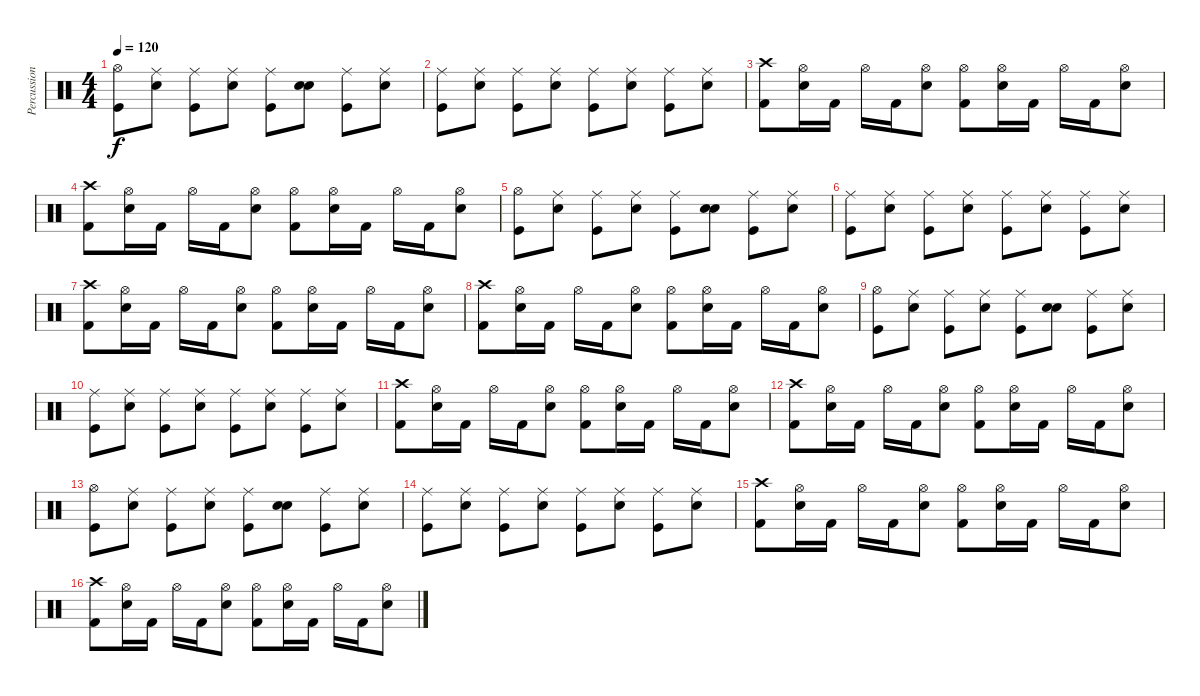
\track ("Percussion" "Percussion") {instrument percussion}
\staff {score}
\articulation defaults
\ts (4 4)
\tempo 120
\clef neutral
\ks c
("Hi-Hat (open)" "Kick (hit)").8{dy f} ("Ride (middle)" "Hand Clap (hit)").8 ("Ride (middle)" "Kick (hit)").8 ("Ride (middle)" "Hand Clap (hit)").8 ("Ride (middle)" "Kick (hit)").8 ("Snare (hit)" "Hand Clap (hit)").8 ("Ride (middle)" "Kick (hit)").8 ("Ride (middle)" "Hand Clap (hit)").8 |
("Ride (middle)" "Kick (hit)").8 ("Ride (middle)" "Hand Clap (hit)").8 ("Ride (middle)" "Kick (hit)").8 ("Ride (middle)" "Hand Clap (hit)").8 ("Ride (middle)" "Kick (hit)").8 ("Ride (middle)" "Hand Clap (hit)").8 ("Ride (middle)" "Kick (hit)").8 ("Ride (middle)" "Hand Clap (hit)").8 |
("Crash high (hit)" "Kick (hit) 2").8 ("Hi-Hat (open)" "Snare (hit) 2").16 "Kick (hit) 2".16 "Hi-Hat (open)".16 "Kick (hit) 2".16 ("Hi-Hat (open)" "Snare (hit) 2").8 ("Hi-Hat (open)" "Kick (hit) 2").8 ("Hi-Hat (open)" "Snare (hit) 2").16 "Kick (hit) 2".16 "Hi-Hat (open)".16 "Kick (hit) 2".16 ("Hi-Hat (open)" "Snare (hit) 2").8 |
("Crash high (hit)" "Kick (hit) 2").8 ("Hi-Hat (open)" "Snare (hit) 2").16 "Kick (hit) 2".16 "Hi-Hat (open)".16 "Kick (hit) 2".16 ("Hi-Hat (open)" "Snare (hit) 2").8 ("Hi-Hat (open)" "Kick (hit) 2").8 ("Hi-Hat (open)" "Snare (hit) 2").16 "Kick (hit) 2".16 "Hi-Hat (open)".16 "Kick (hit) 2".16 ("Hi-Hat (open)" "Snare (hit) 2").8 |
("Hi-Hat (open)" "Kick (hit)").8 ("Ride (middle)" "Hand Clap (hit)").8 ("Ride (middle)" "Kick (hit)").8 ("Ride (middle)" "Hand Clap (hit)").8 ("Ride (middle)" "Kick (hit)").8 ("Snare (hit)" "Hand Clap (hit)").8 ("Ride (middle)" "Kick (hit)").8 ("Ride (middle)" "Hand Clap (hit)").8 |
("Ride (middle)" "Kick (hit)").8 ("Ride (middle)" "Hand Clap (hit)").8 ("Ride (middle)" "Kick (hit)").8 ("Ride (middle)" "Hand Clap (hit)").8 ("Ride (middle)" "Kick (hit)").8 ("Ride (middle)" "Hand Clap (hit)").8 ("Ride (middle)" "Kick (hit)").8 ("Ride (middle)" "Hand Clap (hit)").8 |
("Crash high (hit)" "Kick (hit) 2").8 ("Hi-Hat (open)" "Snare (hit) 2").16 "Kick (hit) 2".16 "Hi-Hat (open)".16 "Kick (hit) 2".16 ("Hi-Hat (open)" "Snare (hit) 2").8 ("Hi-Hat (open)" "Kick (hit) 2").8 ("Hi-Hat (open)" "Snare (hit) 2").16 "Kick (hit) 2".16 "Hi-Hat (open)".16 "Kick (hit) 2".16 ("Hi-Hat (open)" "Snare (hit) 2").8 |
("Crash high (hit)" "Kick (hit) 2").8 ("Hi-Hat (open)" "Snare (hit) 2").16 "Kick (hit) 2".16 "Hi-Hat (open)".16 "Kick (hit) 2".16 ("Hi-Hat (open)" "Snare (hit) 2").8 ("Hi-Hat (open)" "Kick (hit) 2").8 ("Hi-Hat (open)" "Snare (hit) 2").16 "Kick (hit) 2".16 "Hi-Hat (open)".16 "Kick (hit) 2".16 ("Hi-Hat (open)" "Snare (hit) 2").8 |
("Hi-Hat (open)" "Kick (hit)").8 ("Ride (middle)" "Hand Clap (hit)").8 ("Ride (middle)" "Kick (hit)").8 ("Ride (middle)" "Hand Clap (hit)").8 ("Ride (middle)" "Kick (hit)").8 ("Snare (hit)" "Hand Clap (hit)").8 ("Ride (middle)" "Kick (hit)").8 ("Ride (middle)" "Hand Clap (hit)").8 |
("Ride (middle)" "Kick (hit)").8 ("Ride (middle)" "Hand Clap (hit)").8 ("Ride (middle)" "Kick (hit)").8 ("Ride (middle)" "Hand Clap (hit)").8 ("Ride (middle)" "Kick (hit)").8 ("Ride (middle)" "Hand Clap (hit)").8 ("Ride (middle)" "Kick (hit)").8 ("Ride (middle)" "Hand Clap (hit)").8 |
("Crash high (hit)" "Kick (hit) 2").8 ("Hi-Hat (open)" "Snare (hit) 2").16 "Kick (hit) 2".16 "Hi-Hat (open)".16 "Kick (hit) 2".16 ("Hi-Hat (open)" "Snare (hit) 2").8 ("Hi-Hat (open)" "Kick (hit) 2").8 ("Hi-Hat (open)" "Snare (hit) 2").16 "Kick (hit) 2".16 "Hi-Hat (open)".16 "Kick (hit) 2".16 ("Hi-Hat (open)" "Snare (hit) 2").8 |
("Crash high (hit)" "Kick (hit) 2").8 ("Hi-Hat (open)" "Snare (hit) 2").16 "Kick (hit) 2".16 "Hi-Hat (open)".16 "Kick (hit) 2".16 ("Hi-Hat (open)" "Snare (hit) 2").8 ("Hi-Hat (open)" "Kick (hit) 2").8 ("Hi-Hat (open)" "Snare (hit) 2").16 "Kick (hit) 2".16 "Hi-Hat (open)".16 "Kick (hit) 2".16 ("Hi-Hat (open)" "Snare (hit) 2").8 |
("Hi-Hat (open)" "Kick (hit)").8 ("Ride (middle)" "Hand Clap (hit)").8 ("Ride (middle)" "Kick (hit)").8 ("Ride (middle)" "Hand Clap (hit)").8 ("Ride (middle)" "Kick (hit)").8 ("Snare (hit)" "Hand Clap (hit)").8 ("Ride (middle)" "Kick (hit)").8 ("Ride (middle)" "Hand Clap (hit)").8 |
("Ride (middle)" "Kick (hit)").8 ("Ride (middle)" "Hand Clap (hit)").8 ("Ride (middle)" "Kick (hit)").8 ("Ride (middle)" "Hand Clap (hit)").8 ("Ride (middle)" "Kick (hit)").8 ("Ride (middle)" "Hand Clap (hit)").8 ("Ride (middle)" "Kick (hit)").8 ("Ride (middle)" "Hand Clap (hit)").8 |
("Crash high (hit)" "Kick (hit) 2").8 ("Hi-Hat (open)" "Snare (hit) 2").16 "Kick (hit) 2".16 "Hi-Hat (open)".16 "Kick (hit) 2".16 ("Hi-Hat (open)" "Snare (hit) 2").8 ("Hi-Hat (open)" "Kick (hit) 2").8 ("Hi-Hat (open)" "Snare (hit) 2").16 "Kick (hit) 2".16 "Hi-Hat (open)".16 "Kick (hit) 2".16 ("Hi-Hat (open)" "Snare (hit) 2").8 |
("Crash high (hit)" "Kick (hit) 2").8 ("Hi-Hat (open)" "Snare (hit) 2").16 "Kick (hit) 2".16 "Hi-Hat (open)".16 "Kick (hit) 2".16 ("Hi-Hat (open)" "Snare (hit) 2").8 ("Hi-Hat (open)" "Kick (hit) 2").8 ("Hi-Hat (open)" "Snare (hit) 2").16 "Kick (hit) 2".16 "Hi-Hat (open)".16 "Kick (hit) 2".16 ("Hi-Hat (open)" "Snare (hit) 2").8
